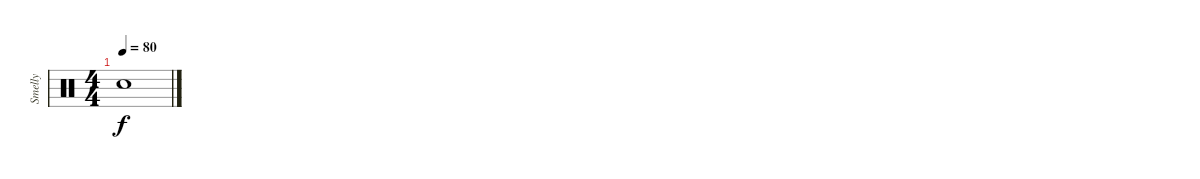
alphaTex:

\track ("Smelly" "Smelly") {instrument percussion}
\staff {score}
\articulation defaults
\ts (4 4)
\tempo 80
\clef neutral
\ks c "Snare (hit)"{t}.1{dy f}
